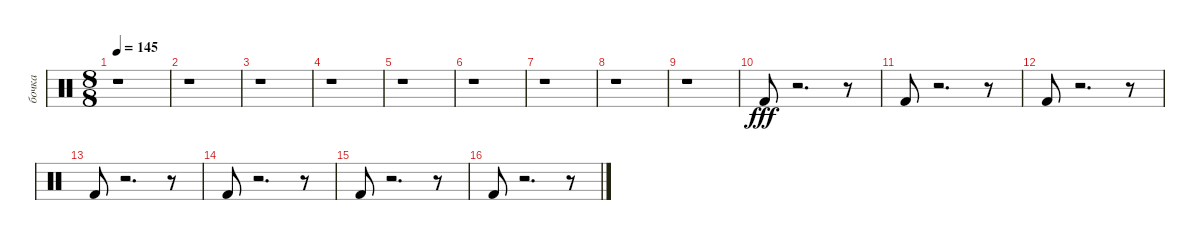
\track ("бочка" "бочка") {instrument percussion}
\staff {score}
\articulation defaults
\ts (8 8)
\tempo 145
\clef neutral
\ks c
r.1{dy fff} |
r.1 |
r.1 |
r.1 |
r.1 |
r.1 |
r.1 |
r.1 |
r.1 |
"Kick (hit) 2".8 r.2{d} r.8 |
"Kick (hit) 2".8 r.2{d} r.8 |
"Kick (hit) 2".8 r.2{d} r.8 |
"Kick (hit) 2".8 r.2{d} r.8 |
"Kick (hit) 2".8 r.2{d} r.8 |
"Kick (hit) 2".8 r.2{d} r.8 |
"Kick (hit) 2".8 r.2{d} r.8
